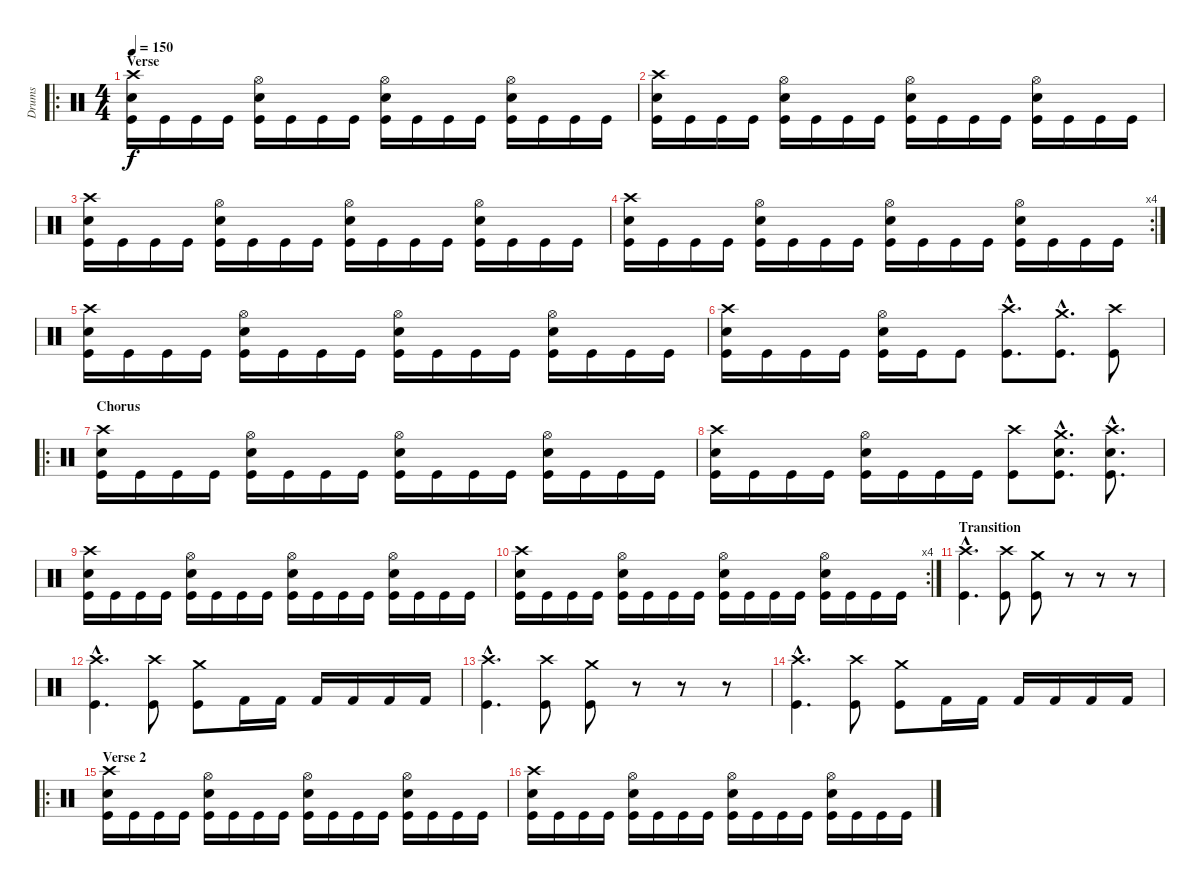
\track ("Drums" "Drums") {instrument percussion}
\staff {score}
\articulation defaults
\ro
\ts (4 4)
\section ("" "Verse")
\tempo 150
\clef neutral
\ks c
("Crash high (hit)" "Snare (hit) 2" "Kick (hit)").16{dy f} "Kick (hit)".16 "Kick (hit)".16 "Kick (hit)".16 ("Hi-Hat (open)" "Snare (hit) 2" "Kick (hit)").16 "Kick (hit)".16 "Kick (hit)".16 "Kick (hit)".16 ("Hi-Hat (open)" "Snare (hit) 2" "Kick (hit)").16 "Kick (hit)".16 "Kick (hit)".16 "Kick (hit)".16 ("Hi-Hat (open)" "Snare (hit) 2" "Kick (hit)").16 "Kick (hit)".16 "Kick (hit)".16 "Kick (hit)".16 |
("Crash high (hit)" "Snare (hit) 2" "Kick (hit)").16 "Kick (hit)".16 "Kick (hit)".16 "Kick (hit)".16 ("Hi-Hat (open)" "Snare (hit) 2" "Kick (hit)").16 "Kick (hit)".16 "Kick (hit)".16 "Kick (hit)".16 ("Hi-Hat (open)" "Snare (hit) 2" "Kick (hit)").16 "Kick (hit)".16 "Kick (hit)".16 "Kick (hit)".16 ("Hi-Hat (open)" "Snare (hit) 2" "Kick (hit)").16 "Kick (hit)".16 "Kick (hit)".16 "Kick (hit)".16 |
("Crash high (hit)" "Snare (hit) 2" "Kick (hit)").16 "Kick (hit)".16 "Kick (hit)".16 "Kick (hit)".16 ("Hi-Hat (open)" "Snare (hit) 2" "Kick (hit)").16 "Kick (hit)".16 "Kick (hit)".16 "Kick (hit)".16 ("Hi-Hat (open)" "Snare (hit) 2" "Kick (hit)").16 "Kick (hit)".16 "Kick (hit)".16 "Kick (hit)".16 ("Hi-Hat (open)" "Snare (hit) 2" "Kick (hit)").16 "Kick (hit)".16 "Kick (hit)".16 "Kick (hit)".16 |
\rc 4
("Crash high (hit)" "Snare (hit) 2" "Kick (hit)").16 "Kick (hit)".16 "Kick (hit)".16 "Kick (hit)".16 ("Hi-Hat (open)" "Snare (hit) 2" "Kick (hit)").16 "Kick (hit)".16 "Kick (hit)".16 "Kick (hit)".16 ("Hi-Hat (open)" "Snare (hit) 2" "Kick (hit)").16 "Kick (hit)".16 "Kick (hit)".16 "Kick (hit)".16 ("Hi-Hat (open)" "Snare (hit) 2" "Kick (hit)").16 "Kick (hit)".16 "Kick (hit)".16 "Kick (hit)".16 |
\section ("" "")
("Crash high (hit)" "Snare (hit) 2" "Kick (hit)").16 "Kick (hit)".16 "Kick (hit)".16 "Kick (hit)".16 ("Hi-Hat (open)" "Snare (hit) 2" "Kick (hit)").16 "Kick (hit)".16 "Kick (hit)".16 "Kick (hit)".16 ("Hi-Hat (open)" "Snare (hit) 2" "Kick (hit)").16 "Kick (hit)".16 "Kick (hit)".16 "Kick (hit)".16 ("Hi-Hat (open)" "Snare (hit) 2" "Kick (hit)").16 "Kick (hit)".16 "Kick (hit)".16 "Kick (hit)".16 |
("Crash high (hit)" "Snare (hit) 2" "Kick (hit)").16 "Kick (hit)".16 "Kick (hit)".16 "Kick (hit)".16 ("Hi-Hat (open)" "Snare (hit) 2" "Kick (hit)").16 "Kick (hit)".16 "Kick (hit)".8 ("Crash high (hit)"{hac} "Kick (hit)"{hac}).8{d} ("Crash medium (hit)"{hac} "Kick (hit)"{hac}).8{d} ("Crash high (hit)" "Kick (hit)").8 |
\ro
\section ("" "Chorus")
("Crash high (hit)" "Snare (hit) 2" "Kick (hit)").16 "Kick (hit)".16 "Kick (hit)".16 "Kick (hit)".16 ("Hi-Hat (open)" "Snare (hit) 2" "Kick (hit)").16 "Kick (hit)".16 "Kick (hit)".16 "Kick (hit)".16 ("Hi-Hat (open)" "Snare (hit) 2" "Kick (hit)").16 "Kick (hit)".16 "Kick (hit)".16 "Kick (hit)".16 ("Hi-Hat (open)" "Snare (hit) 2" "Kick (hit)").16 "Kick (hit)".16 "Kick (hit)".16 "Kick (hit)".16 |
("Crash high (hit)" "Snare (hit) 2" "Kick (hit)").16 "Kick (hit)".16 "Kick (hit)".16 "Kick (hit)".16 ("Hi-Hat (open)" "Snare (hit) 2" "Kick (hit)").16 "Kick (hit)".16 "Kick (hit)".16 "Kick (hit)".16 ("Crash high (hit)" "Kick (hit)").8 ("Crash medium (hit)"{hac} "Snare (hit) 2"{hac} "Kick (hit)"{hac}).8{d} ("Crash high (hit)"{hac} "Snare (hit) 2"{hac} "Kick (hit)"{hac}).8{d} |
("Crash high (hit)" "Snare (hit) 2" "Kick (hit)").16 "Kick (hit)".16 "Kick (hit)".16 "Kick (hit)".16 ("Hi-Hat (open)" "Snare (hit) 2" "Kick (hit)").16 "Kick (hit)".16 "Kick (hit)".16 "Kick (hit)".16 ("Hi-Hat (open)" "Snare (hit) 2" "Kick (hit)").16 "Kick (hit)".16 "Kick (hit)".16 "Kick (hit)".16 ("Hi-Hat (open)" "Snare (hit) 2" "Kick (hit)").16 "Kick (hit)".16 "Kick (hit)".16 "Kick (hit)".16 |
\rc 4
("Crash high (hit)" "Snare (hit) 2" "Kick (hit)").16 "Kick (hit)".16 "Kick (hit)".16 "Kick (hit)".16 ("Hi-Hat (open)" "Snare (hit) 2" "Kick (hit)").16 "Kick (hit)".16 "Kick (hit)".16 "Kick (hit)".16 ("Hi-Hat (open)" "Snare (hit) 2" "Kick (hit)").16 "Kick (hit)".16 "Kick (hit)".16 "Kick (hit)".16 ("Hi-Hat (open)" "Snare (hit) 2" "Kick (hit)").16 "Kick (hit)".16 "Kick (hit)".16 "Kick (hit)".16 |
\section ("" "Transition")
("Crash high (hit)"{hac} "Kick (hit)"{hac}).4{d} ("Crash high (hit)" "Kick (hit)").8 ("Crash medium (hit)" "Kick (hit)").8 r.8 r.8 r.8 |
("Crash high (hit)"{hac} "Kick (hit)"{hac}).4{d} ("Crash high (hit)" "Kick (hit)").8 ("Crash medium (hit)" "Kick (hit)").8 "Kick (hit) 2".16 "Kick (hit) 2".16 "Kick (hit) 2".16 "Kick (hit) 2".16 "Kick (hit) 2".16 "Kick (hit) 2".16 |
("Crash high (hit)"{hac} "Kick (hit)"{hac}).4{d} ("Crash high (hit)" "Kick (hit)").8 ("Crash medium (hit)" "Kick (hit)").8 r.8 r.8 r.8 |
("Crash high (hit)"{hac} "Kick (hit)"{hac}).4{d} ("Crash high (hit)" "Kick (hit)").8 ("Crash medium (hit)" "Kick (hit)").8 "Kick (hit) 2".16 "Kick (hit) 2".16 "Kick (hit) 2".16 "Kick (hit) 2".16 "Kick (hit) 2".16 "Kick (hit) 2".16 |
\ro
\section ("" "Verse 2")
("Crash high (hit)" "Snare (hit) 2" "Kick (hit)").16 "Kick (hit)".16 "Kick (hit)".16 "Kick (hit)".16 ("Hi-Hat (open)" "Snare (hit) 2" "Kick (hit)").16 "Kick (hit)".16 "Kick (hit)".16 "Kick (hit)".16 ("Hi-Hat (open)" "Snare (hit) 2" "Kick (hit)").16 "Kick (hit)".16 "Kick (hit)".16 "Kick (hit)".16 ("Hi-Hat (open)" "Snare (hit) 2" "Kick (hit)").16 "Kick (hit)".16 "Kick (hit)".16 "Kick (hit)".16 |
("Crash high (hit)" "Snare (hit) 2" "Kick (hit)").16 "Kick (hit)".16 "Kick (hit)".16 "Kick (hit)".16 ("Hi-Hat (open)" "Snare (hit) 2" "Kick (hit)").16 "Kick (hit)".16 "Kick (hit)".16 "Kick (hit)".16 ("Hi-Hat (open)" "Snare (hit) 2" "Kick (hit)").16 "Kick (hit)".16 "Kick (hit)".16 "Kick (hit)".16 ("Hi-Hat (open)" "Snare (hit) 2" "Kick (hit)").16 "Kick (hit)".16 "Kick (hit)".16 "Kick (hit)".16
